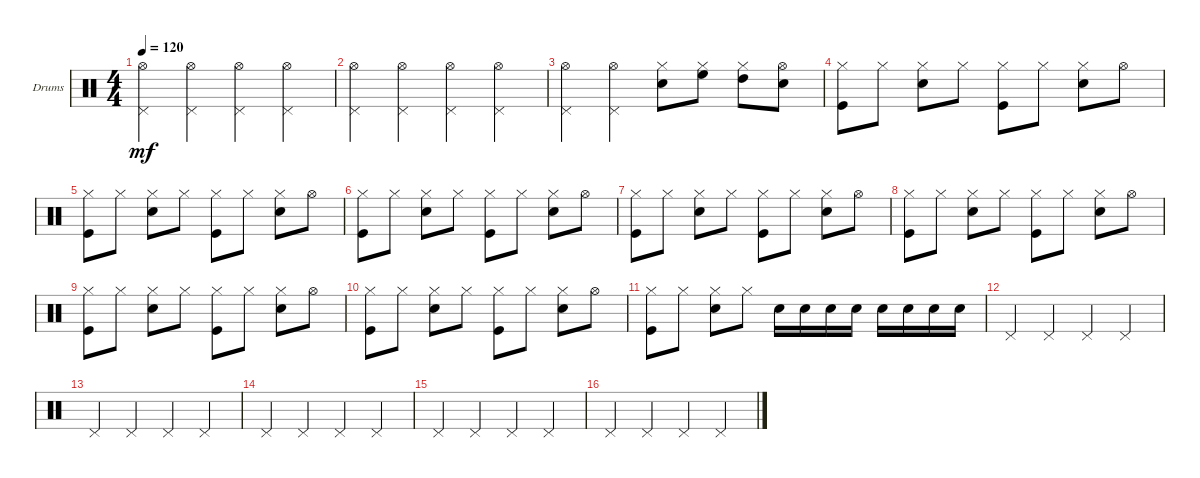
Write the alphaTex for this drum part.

\bracketExtendMode groupsimilarinstruments
\firstSystemTrackNameOrientation horizontal
\otherSystemsTrackNameOrientation horizontal
\track ("Drumkit" "Drums") {instrument percussion}
\staff {score}
\articulation defaults
\ts (4 4)
\tempo 120
\clef neutral
\ks c
("Pedal Hi-Hat (hit)" "Hi-Hat (open)").4{dy mf} ("Pedal Hi-Hat (hit)" "Hi-Hat (open)").4 ("Pedal Hi-Hat (hit)" "Hi-Hat (open)").4 ("Pedal Hi-Hat (hit)" "Hi-Hat (open)").4 |
("Pedal Hi-Hat (hit)" "Hi-Hat (open)").4 ("Pedal Hi-Hat (hit)" "Hi-Hat (open)").4 ("Pedal Hi-Hat (hit)" "Hi-Hat (open)").4 ("Pedal Hi-Hat (hit)" "Hi-Hat (open)").4 |
("Pedal Hi-Hat (hit)" "Hi-Hat (open)").4 ("Pedal Hi-Hat (hit)" "Hi-Hat (open)").4 ("Snare (hit) 2" "Hi-Hat (closed)").8 ("High Floor Tom (hit)" "Hi-Hat (closed)").8 ("High Tom (hit)" "Hi-Hat (closed)").8 ("Hi-Hat (open)" "Snare (hit) 2").8 |
("Kick (hit)" "Hi-Hat (closed)").8 "Hi-Hat (closed)".8 ("Snare (hit) 2" "Hi-Hat (closed)").8 "Hi-Hat (closed)".8 ("Kick (hit)" "Hi-Hat (closed)").8 "Hi-Hat (closed)".8 ("Snare (hit) 2" "Hi-Hat (closed)").8 "Hi-Hat (open)".8 |
("Kick (hit)" "Hi-Hat (closed)").8 "Hi-Hat (closed)".8 ("Snare (hit) 2" "Hi-Hat (closed)").8 "Hi-Hat (closed)".8 ("Kick (hit)" "Hi-Hat (closed)").8 "Hi-Hat (closed)".8 ("Snare (hit) 2" "Hi-Hat (closed)").8 "Hi-Hat (open)".8 |
("Kick (hit)" "Hi-Hat (closed)").8 "Hi-Hat (closed)".8 ("Snare (hit) 2" "Hi-Hat (closed)").8 "Hi-Hat (closed)".8 ("Kick (hit)" "Hi-Hat (closed)").8 "Hi-Hat (closed)".8 ("Snare (hit) 2" "Hi-Hat (closed)").8 "Hi-Hat (open)".8 |
("Kick (hit)" "Hi-Hat (closed)").8 "Hi-Hat (closed)".8 ("Snare (hit) 2" "Hi-Hat (closed)").8 "Hi-Hat (closed)".8 ("Kick (hit)" "Hi-Hat (closed)").8 "Hi-Hat (closed)".8 ("Snare (hit) 2" "Hi-Hat (closed)").8 "Hi-Hat (open)".8 |
("Kick (hit)" "Hi-Hat (closed)").8 "Hi-Hat (closed)".8 ("Snare (hit) 2" "Hi-Hat (closed)").8 "Hi-Hat (closed)".8 ("Kick (hit)" "Hi-Hat (closed)").8 "Hi-Hat (closed)".8 ("Snare (hit) 2" "Hi-Hat (closed)").8 "Hi-Hat (open)".8 |
("Kick (hit)" "Hi-Hat (closed)").8 "Hi-Hat (closed)".8 ("Snare (hit) 2" "Hi-Hat (closed)").8 "Hi-Hat (closed)".8 ("Kick (hit)" "Hi-Hat (closed)").8 "Hi-Hat (closed)".8 ("Snare (hit) 2" "Hi-Hat (closed)").8 "Hi-Hat (open)".8 |
("Kick (hit)" "Hi-Hat (closed)").8 "Hi-Hat (closed)".8 ("Snare (hit) 2" "Hi-Hat (closed)").8 "Hi-Hat (closed)".8 ("Kick (hit)" "Hi-Hat (closed)").8 "Hi-Hat (closed)".8 ("Snare (hit) 2" "Hi-Hat (closed)").8 "Hi-Hat (open)".8 |
("Kick (hit)" "Hi-Hat (closed)").8 "Hi-Hat (closed)".8 ("Snare (hit) 2" "Hi-Hat (closed)").8 "Hi-Hat (closed)".8 "Snare (hit) 2".16 "Snare (hit) 2".16 "Snare (hit) 2".16 "Snare (hit) 2".16 "Snare (hit) 2".16 "Snare (hit) 2".16 "Snare (hit) 2".16 "Snare (hit) 2".16 |
"Pedal Hi-Hat (hit)".4 "Pedal Hi-Hat (hit)".4 "Pedal Hi-Hat (hit)".4 "Pedal Hi-Hat (hit)".4 |
"Pedal Hi-Hat (hit)".4 "Pedal Hi-Hat (hit)".4 "Pedal Hi-Hat (hit)".4 "Pedal Hi-Hat (hit)".4 |
"Pedal Hi-Hat (hit)".4 "Pedal Hi-Hat (hit)".4 "Pedal Hi-Hat (hit)".4 "Pedal Hi-Hat (hit)".4 |
"Pedal Hi-Hat (hit)".4 "Pedal Hi-Hat (hit)".4 "Pedal Hi-Hat (hit)".4 "Pedal Hi-Hat (hit)".4 |
"Pedal Hi-Hat (hit)".4 "Pedal Hi-Hat (hit)".4 "Pedal Hi-Hat (hit)".4 "Pedal Hi-Hat (hit)".4
